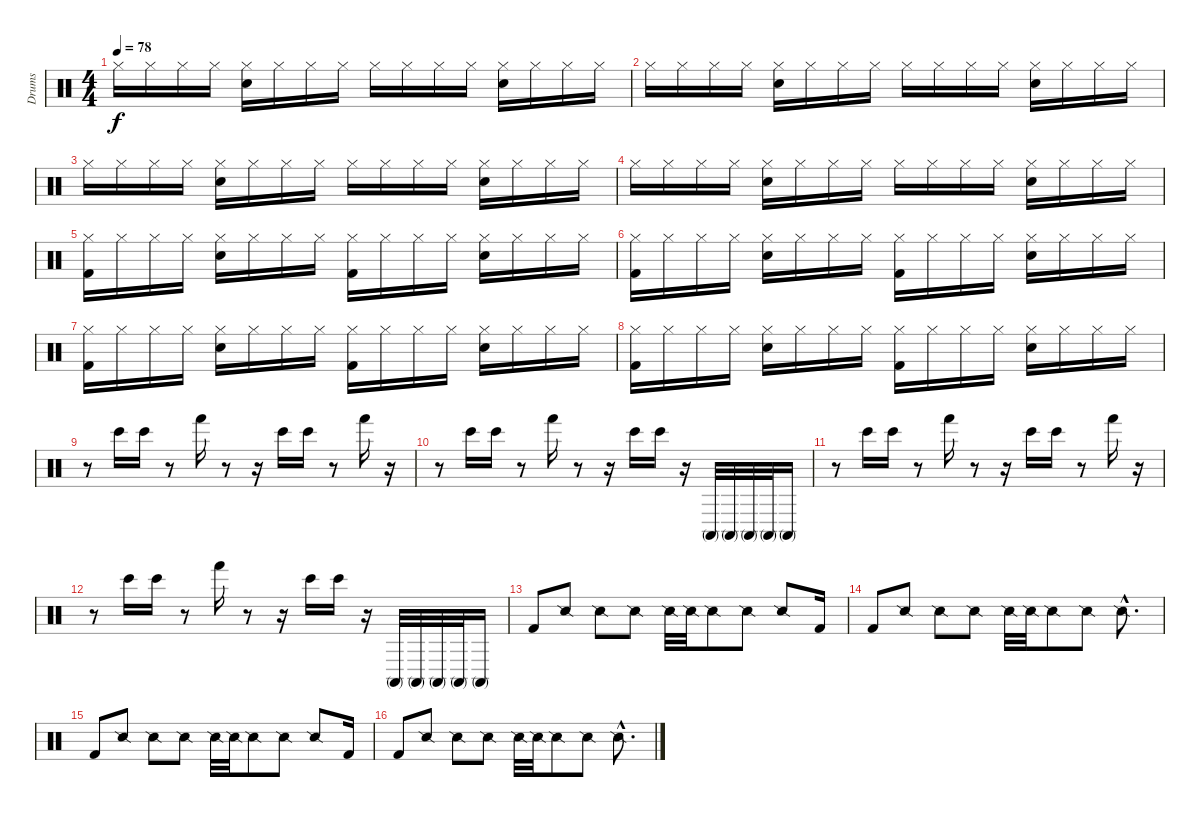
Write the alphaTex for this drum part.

\track ("Drums" "Drums") {instrument percussion}
\staff {score}
\articulation defaults
\ts (4 4)
\tempo 78
\clef neutral
\ks c "Hi-Hat (closed)".16{dy f} "Hi-Hat (closed)".16 "Hi-Hat (closed)".16 "Hi-Hat (closed)".16
("Snare (hit) 2" "Hi-Hat (closed)").16 "Hi-Hat (closed)".16 "Hi-Hat (closed)".16 "Hi-Hat (closed)".16 "Hi-Hat (closed)".16 "Hi-Hat (closed)".16 "Hi-Hat (closed)".16 "Hi-Hat (closed)".16 ("Snare (hit) 2" "Hi-Hat (closed)").16 "Hi-Hat (closed)".16 "Hi-Hat (closed)".16 "Hi-Hat (closed)".16 |
"Hi-Hat (closed)".16 "Hi-Hat (closed)".16 "Hi-Hat (closed)".16 "Hi-Hat (closed)".16 ("Snare (hit) 2" "Hi-Hat (closed)").16 "Hi-Hat (closed)".16 "Hi-Hat (closed)".16 "Hi-Hat (closed)".16 "Hi-Hat (closed)".16 "Hi-Hat (closed)".16 "Hi-Hat (closed)".16 "Hi-Hat (closed)".16 ("Snare (hit) 2" "Hi-Hat (closed)").16 "Hi-Hat (closed)".16 "Hi-Hat (closed)".16 "Hi-Hat (closed)".16 |
"Hi-Hat (closed)".16 "Hi-Hat (closed)".16 "Hi-Hat (closed)".16 "Hi-Hat (closed)".16 ("Snare (hit) 2" "Hi-Hat (closed)").16 "Hi-Hat (closed)".16 "Hi-Hat (closed)".16 "Hi-Hat (closed)".16 "Hi-Hat (closed)".16 "Hi-Hat (closed)".16 "Hi-Hat (closed)".16 "Hi-Hat (closed)".16 ("Snare (hit) 2" "Hi-Hat (closed)").16 "Hi-Hat (closed)".16 "Hi-Hat (closed)".16 "Hi-Hat (closed)".16 |
"Hi-Hat (closed)".16 "Hi-Hat (closed)".16 "Hi-Hat (closed)".16 "Hi-Hat (closed)".16 ("Snare (hit) 2" "Hi-Hat (closed)").16 "Hi-Hat (closed)".16 "Hi-Hat (closed)".16 "Hi-Hat (closed)".16 "Hi-Hat (closed)".16 "Hi-Hat (closed)".16 "Hi-Hat (closed)".16 "Hi-Hat (closed)".16 ("Snare (hit) 2" "Hi-Hat (closed)").16 "Hi-Hat (closed)".16 "Hi-Hat (closed)".16 "Hi-Hat (closed)".16 |
("Kick (hit) 2" "Hi-Hat (closed)").16 "Hi-Hat (closed)".16 "Hi-Hat (closed)".16 "Hi-Hat (closed)".16 ("Snare (hit) 2" "Hi-Hat (closed)").16 "Hi-Hat (closed)".16 "Hi-Hat (closed)".16 "Hi-Hat (closed)".16 ("Kick (hit) 2" "Hi-Hat (closed)").16 "Hi-Hat (closed)".16 "Hi-Hat (closed)".16 "Hi-Hat (closed)".16 ("Snare (hit) 2" "Hi-Hat (closed)").16 "Hi-Hat (closed)".16 "Hi-Hat (closed)".16 "Hi-Hat (closed)".16 |
("Kick (hit) 2" "Hi-Hat (closed)").16 "Hi-Hat (closed)".16 "Hi-Hat (closed)".16 "Hi-Hat (closed)".16 ("Snare (hit) 2" "Hi-Hat (closed)").16 "Hi-Hat (closed)".16 "Hi-Hat (closed)".16 "Hi-Hat (closed)".16 ("Kick (hit) 2" "Hi-Hat (closed)").16 "Hi-Hat (closed)".16 "Hi-Hat (closed)".16 "Hi-Hat (closed)".16 ("Snare (hit) 2" "Hi-Hat (closed)").16 "Hi-Hat (closed)".16 "Hi-Hat (closed)".16 "Hi-Hat (closed)".16 |
("Kick (hit) 2" "Hi-Hat (closed)").16 "Hi-Hat (closed)".16 "Hi-Hat (closed)".16 "Hi-Hat (closed)".16 ("Snare (hit) 2" "Hi-Hat (closed)").16 "Hi-Hat (closed)".16 "Hi-Hat (closed)".16 "Hi-Hat (closed)".16 ("Kick (hit) 2" "Hi-Hat (closed)").16 "Hi-Hat (closed)".16 "Hi-Hat (closed)".16 "Hi-Hat (closed)".16 ("Snare (hit) 2" "Hi-Hat (closed)").16 "Hi-Hat (closed)".16 "Hi-Hat (closed)".16 "Hi-Hat (closed)".16 |
("Kick (hit) 2" "Hi-Hat (closed)").16 "Hi-Hat (closed)".16 "Hi-Hat (closed)".16 "Hi-Hat (closed)".16 ("Snare (hit) 2" "Hi-Hat (closed)").16 "Hi-Hat (closed)".16 "Hi-Hat (closed)".16 "Hi-Hat (closed)".16 ("Kick (hit) 2" "Hi-Hat (closed)").16 "Hi-Hat (closed)".16 "Hi-Hat (closed)".16 "Hi-Hat (closed)".16 ("Snare (hit) 2" "Hi-Hat (closed)").16 "Hi-Hat (closed)".16 "Hi-Hat (closed)".16 "Hi-Hat (closed)".16 |
r.8 "Bongo High (hit)".16 "Bongo High (hit)".16 r.8 "Hand (hit)".16 r.8 r.16 "Bongo High (hit)".16 "Bongo High (hit)".16 r.8 "Hand (hit)".16 r.16 |
r.8 "Bongo High (hit)".16 "Bongo High (hit)".16 r.8 "Hand (hit)".16 r.8 r.16 "Bongo High (hit)".16 "Bongo High (hit)".16 r.16 "Conga high (mute)".32 "Conga high (mute)".32 "Conga high (mute)".32 "Conga high (mute)".32 "Conga high (mute)".16 |
r.8 "Bongo High (hit)".16 "Bongo High (hit)".16 r.8 "Hand (hit)".16 r.8 r.16 "Bongo High (hit)".16 "Bongo High (hit)".16 r.8 "Hand (hit)".16 r.16 |
r.8 "Bongo High (hit)".16 "Bongo High (hit)".16 r.8 "Hand (hit)".16 r.8 r.16 "Bongo High (hit)".16 "Bongo High (hit)".16 r.16 "Conga high (mute)".32 "Conga high (mute)".32 "Conga high (mute)".32 "Conga high (mute)".32 "Conga high (mute)".16 |
"Kick (hit) 2".8 "Snare (side stick) 2".8 "Snare (side stick) 2".8 "Snare (side stick) 2".8 "Snare (side stick) 2".32 "Snare (side stick) 2".32 "Snare (side stick) 2".8 "Snare (side stick) 2".8 "Snare (side stick) 2".8 "Kick (hit) 2".16 |
"Kick (hit) 2".8 "Snare (side stick) 2".8 "Snare (side stick) 2".8 "Snare (side stick) 2".8 "Snare (side stick) 2".32 "Snare (side stick) 2".32 "Snare (side stick) 2".8 "Snare (side stick) 2".8 "Snare (side stick) 2"{hac}.8{d} |
"Kick (hit) 2".8 "Snare (side stick) 2".8 "Snare (side stick) 2".8 "Snare (side stick) 2".8 "Snare (side stick) 2".32 "Snare (side stick) 2".32 "Snare (side stick) 2".8 "Snare (side stick) 2".8 "Snare (side stick) 2".8 "Kick (hit) 2".16 |
"Kick (hit) 2".8 "Snare (side stick) 2".8 "Snare (side stick) 2".8 "Snare (side stick) 2".8 "Snare (side stick) 2".32 "Snare (side stick) 2".32 "Snare (side stick) 2".8 "Snare (side stick) 2".8 "Snare (side stick) 2"{hac}.8{d}
